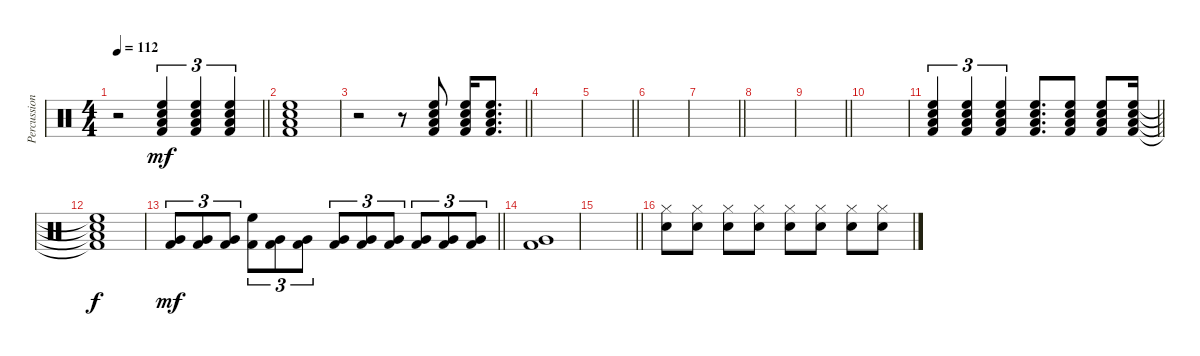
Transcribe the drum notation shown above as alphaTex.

\track ("Percussion" "Percussion") {instrument percussion}
\staff {score}
\articulation defaults
\ts (4 4)
\tempo 112
\clef neutral
\barLineRight lightlight
\ks c
r.2{dy mf} ("Snare (hit) 2" "High Floor Tom (hit)" "Low Floor Tom (hit)" "Kick (hit) 2").4{tu (3 2)} ("Snare (hit) 2" "High Floor Tom (hit)" "Low Floor Tom (hit)" "Kick (hit) 2").4{tu (3 2)} ("Snare (hit) 2" "High Floor Tom (hit)" "Low Floor Tom (hit)" "Kick (hit) 2").4{tu (3 2)} |
("Snare (hit) 2" "High Floor Tom (hit)" "Low Floor Tom (hit)" "Kick (hit) 2").1 |
\barLineRight lightlight
r.2 r.8 ("Snare (hit) 2" "High Floor Tom (hit)" "Low Floor Tom (hit)" "Kick (hit) 2").8 ("Snare (hit) 2" "High Floor Tom (hit)" "Low Floor Tom (hit)" "Kick (hit) 2").16 ("Snare (hit) 2" "High Floor Tom (hit)" "Low Floor Tom (hit)" "Kick (hit) 2").8{d} |
|
\barLineRight lightlight
|
|
\barLineRight lightlight
|
|
\barLineRight lightlight
|
|
\barLineRight lightlight
("Snare (hit) 2" "High Floor Tom (hit)" "Low Floor Tom (hit)" "Kick (hit) 2").4{tu (3 2)} ("Snare (hit) 2" "High Floor Tom (hit)" "Low Floor Tom (hit)" "Kick (hit) 2").4{tu (3 2)} ("Snare (hit) 2" "High Floor Tom (hit)" "Low Floor Tom (hit)" "Kick (hit) 2").4{tu (3 2)} ("Snare (hit) 2" "High Floor Tom (hit)" "Low Floor Tom (hit)" "Kick (hit) 2").8{d} ("Snare (hit) 2" "High Floor Tom (hit)" "Low Floor Tom (hit)" "Kick (hit) 2").8 ("Snare (hit) 2" "High Floor Tom (hit)" "Low Floor Tom (hit)" "Kick (hit) 2").8 ("Snare (hit) 2" "High Floor Tom (hit)" "Low Floor Tom (hit)" "Kick (hit) 2").16 |
("Snare (hit) 2"{t} "High Floor Tom (hit)"{t} "Low Floor Tom (hit)"{t} "Kick (hit) 2"{t}).1{dy f} |
\barLineRight lightlight
("Very Low Tom (hit)" "Kick (hit) 2").8{tu (3 2) dy mf} ("Very Low Tom (hit)" "Kick (hit) 2").8{tu (3 2)} ("Very Low Tom (hit)" "Kick (hit) 2").8{tu (3 2)} ("High Floor Tom (hit)" "Kick (hit) 2").8{tu (3 2)} ("Very Low Tom (hit)" "Kick (hit) 2").8{tu (3 2)} ("Very Low Tom (hit)" "Kick (hit) 2").8{tu (3 2)} ("Very Low Tom (hit)" "Kick (hit) 2").8{tu (3 2)} ("Very Low Tom (hit)" "Kick (hit) 2").8{tu (3 2)} ("Very Low Tom (hit)" "Kick (hit) 2").8{tu (3 2)} ("Very Low Tom (hit)" "Kick (hit) 2").8{tu (3 2)} ("Very Low Tom (hit)" "Kick (hit) 2").8{tu (3 2)} ("Very Low Tom (hit)" "Kick (hit) 2").8{tu (3 2)} |
("Very Low Tom (hit)" "Kick (hit) 2").1 |
\barLineRight lightlight
|
("Hi-Hat (closed)" "Snare (hit) 2").8{volume 16} ("Hi-Hat (closed)" "Snare (hit) 2").8 ("Hi-Hat (closed)" "Snare (hit) 2").8 ("Hi-Hat (closed)" "Snare (hit) 2").8 ("Hi-Hat (closed)" "Snare (hit) 2").8 ("Hi-Hat (closed)" "Snare (hit) 2").8 ("Hi-Hat (closed)" "Snare (hit) 2").8 ("Hi-Hat (closed)" "Snare (hit) 2").8
